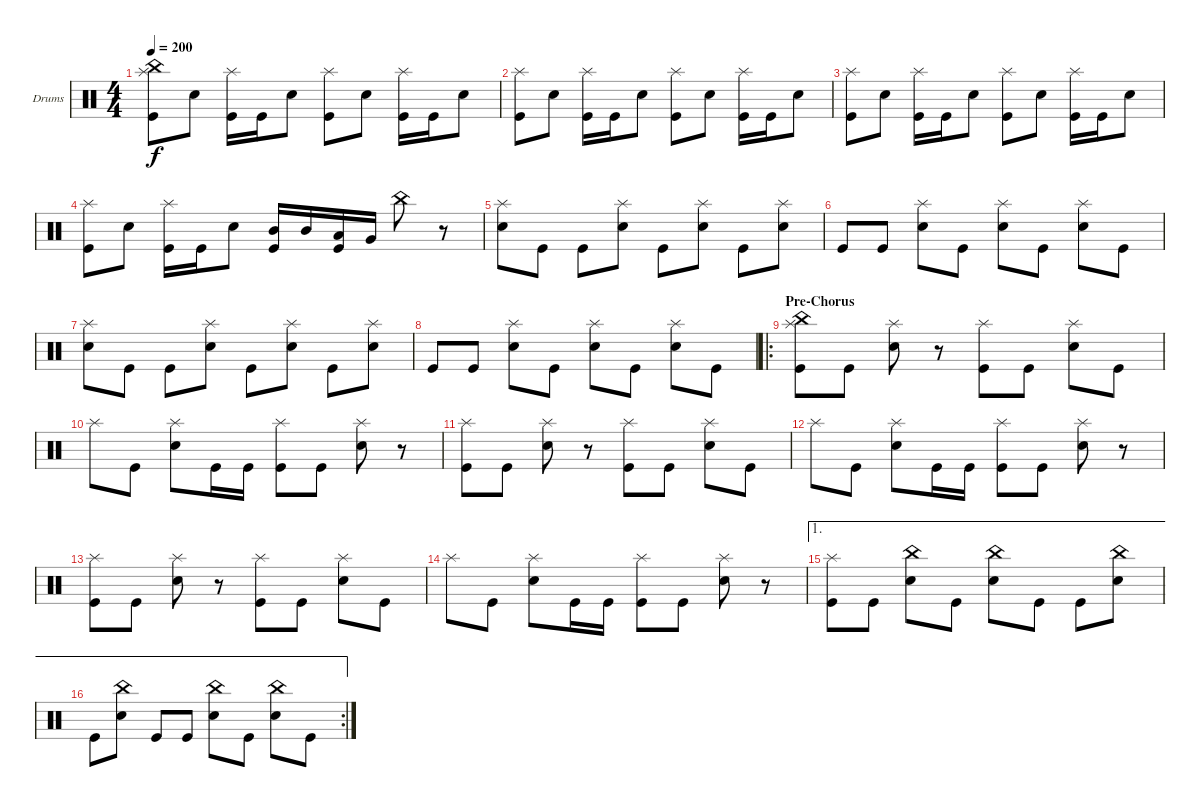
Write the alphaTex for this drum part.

\defaultSystemsLayout 4
\bracketExtendMode groupsimilarinstruments
\firstSystemTrackNameOrientation horizontal
\otherSystemsTrackNameOrientation horizontal
\track ("Drumkit" "Drums") {instrument percussion}
\staff {score}
\articulation defaults
\ts (4 4)
\tempo 200
\clef neutral
\ks c
("Splash (hit)" "Kick (hit)" "China (hit)").8{dy f} "Snare (hit) 2".8 ("Splash (hit)" "Kick (hit)").16 "Kick (hit)".16 "Snare (hit) 2".8 ("Splash (hit)" "Kick (hit)").8 "Snare (hit) 2".8 ("Splash (hit)" "Kick (hit)").16 "Kick (hit)".16 "Snare (hit) 2".8 |
("Splash (hit)" "Kick (hit)").8 "Snare (hit) 2".8 ("Splash (hit)" "Kick (hit)").16 "Kick (hit)".16 "Snare (hit) 2".8 ("Splash (hit)" "Kick (hit)").8 "Snare (hit) 2".8 ("Splash (hit)" "Kick (hit)").16 "Kick (hit)".16 "Snare (hit) 2".8 |
("Splash (hit)" "Kick (hit)").8 "Snare (hit) 2".8 ("Splash (hit)" "Kick (hit)").16 "Kick (hit)".16 "Snare (hit) 2".8 ("Splash (hit)" "Kick (hit)").8 "Snare (hit) 2".8 ("Splash (hit)" "Kick (hit)").16 "Kick (hit)".16 "Snare (hit) 2".8 |
("Splash (hit)" "Kick (hit)").8 "Snare (hit) 2".8 ("Splash (hit)" "Kick (hit)").16 "Kick (hit)".16 "Snare (hit) 2".8 ("Mid Tom (hit)" "Kick (hit)").16 "Mid Tom (hit)".16 ("Low Tom (hit)" "Kick (hit)").16 "Very Low Tom (hit)".16 "China (hit)".8 r.8 |
("Snare (hit) 2" "Splash (hit)").8 "Kick (hit)".8 "Kick (hit)".8 ("Snare (hit) 2" "Splash (hit)").8 "Kick (hit)".8 ("Snare (hit) 2" "Splash (hit)").8 "Kick (hit)".8 ("Snare (hit) 2" "Splash (hit)").8 |
"Kick (hit)".8 "Kick (hit)".8 ("Snare (hit) 2" "Splash (hit)").8 "Kick (hit)".8 ("Snare (hit) 2" "Splash (hit)").8 "Kick (hit)".8 ("Snare (hit) 2" "Splash (hit)").8 "Kick (hit)".8 |
("Snare (hit) 2" "Splash (hit)").8 "Kick (hit)".8 "Kick (hit)".8 ("Snare (hit) 2" "Splash (hit)").8 "Kick (hit)".8 ("Snare (hit) 2" "Splash (hit)").8 "Kick (hit)".8 ("Snare (hit) 2" "Splash (hit)").8 |
"Kick (hit)".8 "Kick (hit)".8 ("Snare (hit) 2" "Splash (hit)").8 "Kick (hit)".8 ("Snare (hit) 2" "Splash (hit)").8 "Kick (hit)".8 ("Snare (hit) 2" "Splash (hit)").8 "Kick (hit)".8 |
\ro
\section ("" "Pre-Chorus")
("Splash (hit)" "Kick (hit)" "China (hit)").8 "Kick (hit)".8 ("Snare (hit) 2" "Splash (hit)").8 r.8 ("Splash (hit)" "Kick (hit)").8 "Kick (hit)".8 ("Splash (hit)" "Snare (hit) 2").8 "Kick (hit)".8 |
"Splash (hit)".8 "Kick (hit)".8 ("Splash (hit)" "Snare (hit) 2").8 "Kick (hit)".16 "Kick (hit)".16 ("Splash (hit)" "Kick (hit)").8 "Kick (hit)".8 ("Splash (hit)" "Snare (hit) 2").8 r.8 |
("Splash (hit)" "Kick (hit)").8 "Kick (hit)".8 ("Snare (hit) 2" "Splash (hit)").8 r.8 ("Splash (hit)" "Kick (hit)").8 "Kick (hit)".8 ("Splash (hit)" "Snare (hit) 2").8 "Kick (hit)".8 |
"Splash (hit)".8 "Kick (hit)".8 ("Splash (hit)" "Snare (hit) 2").8 "Kick (hit)".16 "Kick (hit)".16 ("Splash (hit)" "Kick (hit)").8 "Kick (hit)".8 ("Splash (hit)" "Snare (hit) 2").8 r.8 |
("Splash (hit)" "Kick (hit)").8 "Kick (hit)".8 ("Snare (hit) 2" "Splash (hit)").8 r.8 ("Splash (hit)" "Kick (hit)").8 "Kick (hit)".8 ("Splash (hit)" "Snare (hit) 2").8 "Kick (hit)".8 |
"Splash (hit)".8 "Kick (hit)".8 ("Splash (hit)" "Snare (hit) 2").8 "Kick (hit)".16 "Kick (hit)".16 ("Splash (hit)" "Kick (hit)").8 "Kick (hit)".8 ("Splash (hit)" "Snare (hit) 2").8 r.8 |
\ae 1
("Splash (hit)" "Kick (hit)").8 "Kick (hit)".8 ("Snare (hit) 2" "China (hit)").8 "Kick (hit)".8 ("Snare (hit) 2" "China (hit)").8 "Kick (hit)".8 "Kick (hit)".8 ("China (hit)" "Snare (hit) 2").8 |
\ae 1
\rc 2 "Kick (hit)".8
("Snare (hit) 2" "China (hit)").8 "Kick (hit)".8 "Kick (hit)".8 ("China (hit)" "Snare (hit) 2").8 "Kick (hit)".8 ("Snare (hit) 2" "China (hit)").8 "Kick (hit)".8
